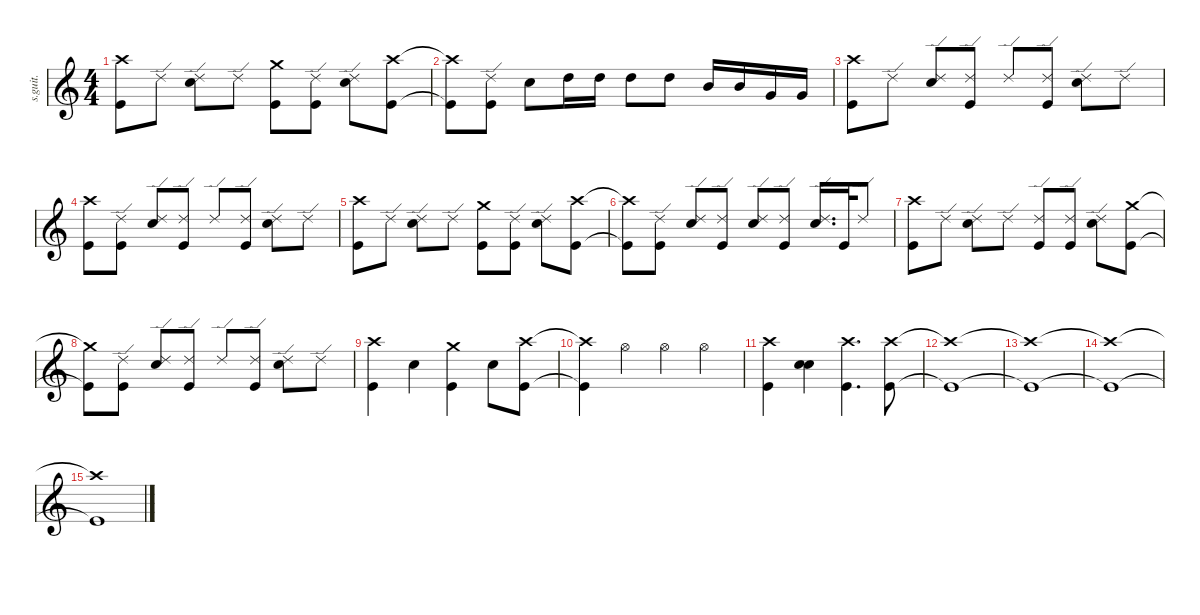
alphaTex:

\defaultSystemsLayout 4
\hideDynamics
\bracketExtendMode nobrackets
\track ("Tre Cool" "s.guit.") {instrument percussion}
\staff {score}
\articulation defaults
\ts (4 4)
\tempo (175 hide)
\clef g2
\ks c
("Crash high (hit)" "Kick (hit)").8{lyrics (0 "") lyrics (1 "") lyrics (2 "") lyrics (3 "") lyrics (4 "") dy fff} "Ride (edge) 2".8{lyrics (0 "") lyrics (1 "") lyrics (2 "") lyrics (3 "") lyrics (4 "")} ("Ride (edge) 2" "Snare (hit) 2").8{lyrics (0 "") lyrics (1 "") lyrics (2 "") lyrics (3 "") lyrics (4 "")} "Ride (edge) 2".8{lyrics (0 "") lyrics (1 "") lyrics (2 "") lyrics (3 "") lyrics (4 "")} ("Crash medium (hit)" "Kick (hit)").8{lyrics (0 "") lyrics (1 "") lyrics (2 "") lyrics (3 "") lyrics (4 "")} ("Ride (edge) 2" "Kick (hit)").8{lyrics (0 "") lyrics (1 "") lyrics (2 "") lyrics (3 "") lyrics (4 "")} ("Ride (edge) 2" "Snare (hit) 2").8{lyrics (0 "") lyrics (1 "") lyrics (2 "") lyrics (3 "") lyrics (4 "")} ("Crash high (hit)" "Kick (hit)").8{lyrics (0 "") lyrics (1 "") lyrics (2 "") lyrics (3 "") lyrics (4 "")} |
("Crash high (hit)"{t} "Kick (hit)"{t}).8{lyrics (0 "") lyrics (1 "") lyrics (2 "") lyrics (3 "") lyrics (4 "")} ("Ride (edge) 2" "Kick (hit)").8{lyrics (0 "") lyrics (1 "") lyrics (2 "") lyrics (3 "") lyrics (4 "")} "Snare (hit) 2".8{lyrics (0 "") lyrics (1 "") lyrics (2 "") lyrics (3 "") lyrics (4 "")} "High Tom (hit)".16{lyrics (0 "") lyrics (1 "") lyrics (2 "") lyrics (3 "") lyrics (4 "")} "High Tom (hit)".16{lyrics (0 "") lyrics (1 "") lyrics (2 "") lyrics (3 "") lyrics (4 "")} "High Tom (hit)".8{lyrics (0 "") lyrics (1 "") lyrics (2 "") lyrics (3 "") lyrics (4 "")} "High Tom (hit)".8{lyrics (0 "") lyrics (1 "") lyrics (2 "") lyrics (3 "") lyrics (4 "")} "Mid Tom (hit)".16{lyrics (0 "") lyrics (1 "") lyrics (2 "") lyrics (3 "") lyrics (4 "")} "Mid Tom (hit)".16{lyrics (0 "") lyrics (1 "") lyrics (2 "") lyrics (3 "") lyrics (4 "")} "Very Low Tom (hit)".16{lyrics (0 "") lyrics (1 "") lyrics (2 "") lyrics (3 "") lyrics (4 "") dy f} "Very Low Tom (hit)".16{lyrics (0 "") lyrics (1 "") lyrics (2 "") lyrics (3 "") lyrics (4 "")} |
("Crash high (hit)" "Kick (hit)").8{lyrics (0 "") lyrics (1 "") lyrics (2 "") lyrics (3 "") lyrics (4 "")} "Ride (edge) 2".8{lyrics (0 "") lyrics (1 "") lyrics (2 "") lyrics (3 "") lyrics (4 "")} ("Ride (edge) 2" "Snare (hit) 2").8{lyrics (0 "") lyrics (1 "") lyrics (2 "") lyrics (3 "") lyrics (4 "")} ("Ride (edge) 2" "Kick (hit)").8{lyrics (0 "") lyrics (1 "") lyrics (2 "") lyrics (3 "") lyrics (4 "")} "Ride (edge) 2".8{lyrics (0 "") lyrics (1 "") lyrics (2 "") lyrics (3 "") lyrics (4 "")} ("Ride (edge) 2" "Kick (hit)").8{lyrics (0 "") lyrics (1 "") lyrics (2 "") lyrics (3 "") lyrics (4 "")} ("Ride (edge) 2" "Snare (hit) 2").8{lyrics (0 "") lyrics (1 "") lyrics (2 "") lyrics (3 "") lyrics (4 "")} "Ride (edge) 2".8{lyrics (0 "") lyrics (1 "") lyrics (2 "") lyrics (3 "") lyrics (4 "")} |
("Crash high (hit)" "Kick (hit)").8{lyrics (0 "") lyrics (1 "") lyrics (2 "") lyrics (3 "") lyrics (4 "")} ("Ride (edge) 2" "Kick (hit)").8{lyrics (0 "") lyrics (1 "") lyrics (2 "") lyrics (3 "") lyrics (4 "")} ("Ride (edge) 2" "Snare (hit) 2").8{lyrics (0 "") lyrics (1 "") lyrics (2 "") lyrics (3 "") lyrics (4 "")} ("Ride (edge) 2" "Kick (hit)").8{lyrics (0 "") lyrics (1 "") lyrics (2 "") lyrics (3 "") lyrics (4 "")} "Ride (edge) 2".8{lyrics (0 "") lyrics (1 "") lyrics (2 "") lyrics (3 "") lyrics (4 "")} ("Ride (edge) 2" "Kick (hit)").8{lyrics (0 "") lyrics (1 "") lyrics (2 "") lyrics (3 "") lyrics (4 "")} ("Ride (edge) 2" "Snare (hit) 2").8{lyrics (0 "") lyrics (1 "") lyrics (2 "") lyrics (3 "") lyrics (4 "")} "Ride (edge) 2".8{lyrics (0 "") lyrics (1 "") lyrics (2 "") lyrics (3 "") lyrics (4 "")} |
("Crash high (hit)" "Kick (hit)").8{lyrics (0 "") lyrics (1 "") lyrics (2 "") lyrics (3 "") lyrics (4 "")} "Ride (edge) 2".8{lyrics (0 "") lyrics (1 "") lyrics (2 "") lyrics (3 "") lyrics (4 "")} ("Ride (edge) 2" "Snare (hit) 2").8{lyrics (0 "") lyrics (1 "") lyrics (2 "") lyrics (3 "") lyrics (4 "")} "Ride (edge) 2".8{lyrics (0 "") lyrics (1 "") lyrics (2 "") lyrics (3 "") lyrics (4 "")} ("Crash medium (hit)" "Kick (hit)").8{lyrics (0 "") lyrics (1 "") lyrics (2 "") lyrics (3 "") lyrics (4 "")} ("Ride (edge) 2" "Kick (hit)").8{lyrics (0 "") lyrics (1 "") lyrics (2 "") lyrics (3 "") lyrics (4 "")} ("Ride (edge) 2" "Snare (hit) 2").8{lyrics (0 "") lyrics (1 "") lyrics (2 "") lyrics (3 "") lyrics (4 "")} ("Crash high (hit)" "Kick (hit)").8{lyrics (0 "") lyrics (1 "") lyrics (2 "") lyrics (3 "") lyrics (4 "")} |
("Crash high (hit)"{t} "Kick (hit)"{t}).8{lyrics (0 "") lyrics (1 "") lyrics (2 "") lyrics (3 "") lyrics (4 "")} ("Ride (edge) 2" "Kick (hit)").8{lyrics (0 "") lyrics (1 "") lyrics (2 "") lyrics (3 "") lyrics (4 "")} ("Ride (edge) 2" "Snare (hit) 2").8{lyrics (0 "") lyrics (1 "") lyrics (2 "") lyrics (3 "") lyrics (4 "")} ("Ride (edge) 2" "Kick (hit)").8{lyrics (0 "") lyrics (1 "") lyrics (2 "") lyrics (3 "") lyrics (4 "")} ("Ride (edge) 2" "Snare (hit) 2").8{lyrics (0 "") lyrics (1 "") lyrics (2 "") lyrics (3 "") lyrics (4 "")} ("Ride (edge) 2" "Kick (hit)").8{lyrics (0 "") lyrics (1 "") lyrics (2 "") lyrics (3 "") lyrics (4 "")} ("Ride (edge) 2" "Snare (hit) 2").16{d lyrics (0 "") lyrics (1 "") lyrics (2 "") lyrics (3 "") lyrics (4 "")} "Kick (hit)".32{lyrics (0 "") lyrics (1 "") lyrics (2 "") lyrics (3 "") lyrics (4 "") dy ff} "Ride (edge) 2".8{lyrics (0 "") lyrics (1 "") lyrics (2 "") lyrics (3 "") lyrics (4 "")} |
("Crash high (hit)" "Kick (hit)").8{lyrics (0 "") lyrics (1 "") lyrics (2 "") lyrics (3 "") lyrics (4 "")} "Ride (edge) 2".8{lyrics (0 "") lyrics (1 "") lyrics (2 "") lyrics (3 "") lyrics (4 "") dy f} ("Ride (edge) 2" "Snare (hit) 2").8{lyrics (0 "") lyrics (1 "") lyrics (2 "") lyrics (3 "") lyrics (4 "")} "Ride (edge) 2".8{lyrics (0 "") lyrics (1 "") lyrics (2 "") lyrics (3 "") lyrics (4 "")} ("Ride (edge) 2" "Kick (hit)").8{lyrics (0 "") lyrics (1 "") lyrics (2 "") lyrics (3 "") lyrics (4 "")} ("Ride (edge) 2" "Kick (hit)").8{lyrics (0 "") lyrics (1 "") lyrics (2 "") lyrics (3 "") lyrics (4 "")} ("Ride (edge) 2" "Snare (hit) 2").8{lyrics (0 "") lyrics (1 "") lyrics (2 "") lyrics (3 "") lyrics (4 "")} ("Crash medium (hit)" "Kick (hit)").8{lyrics (0 "") lyrics (1 "") lyrics (2 "") lyrics (3 "") lyrics (4 "")} |
("Crash medium (hit)"{t} "Kick (hit)"{t}).8{lyrics (0 "") lyrics (1 "") lyrics (2 "") lyrics (3 "") lyrics (4 "")} ("Ride (edge) 2" "Kick (hit)").8{lyrics (0 "") lyrics (1 "") lyrics (2 "") lyrics (3 "") lyrics (4 "")} ("Ride (edge) 2" "Snare (hit) 2").8{lyrics (0 "") lyrics (1 "") lyrics (2 "") lyrics (3 "") lyrics (4 "")} ("Ride (edge) 2" "Kick (hit)").8{lyrics (0 "") lyrics (1 "") lyrics (2 "") lyrics (3 "") lyrics (4 "")} "Ride (edge) 2".8{lyrics (0 "") lyrics (1 "") lyrics (2 "") lyrics (3 "") lyrics (4 "")} ("Ride (edge) 2" "Kick (hit)").8{lyrics (0 "") lyrics (1 "") lyrics (2 "") lyrics (3 "") lyrics (4 "")} ("Ride (edge) 2" "Snare (hit) 2").8{lyrics (0 "") lyrics (1 "") lyrics (2 "") lyrics (3 "") lyrics (4 "")} "Ride (edge) 2".8{lyrics (0 "") lyrics (1 "") lyrics (2 "") lyrics (3 "") lyrics (4 "")} |
("Crash high (hit)" "Kick (hit)").4{lyrics (0 "") lyrics (1 "") lyrics (2 "") lyrics (3 "") lyrics (4 "")} "Snare (hit) 2".4{lyrics (0 "") lyrics (1 "") lyrics (2 "") lyrics (3 "") lyrics (4 "")} ("Crash medium (hit)" "Kick (hit)").4{lyrics (0 "") lyrics (1 "") lyrics (2 "") lyrics (3 "") lyrics (4 "")} "Snare (hit) 2".8{lyrics (0 "") lyrics (1 "") lyrics (2 "") lyrics (3 "") lyrics (4 "")} ("Crash high (hit)" "Kick (hit)").8{lyrics (0 "") lyrics (1 "") lyrics (2 "") lyrics (3 "") lyrics (4 "")} |
("Crash high (hit)"{t} "Kick (hit)"{t}).4{lyrics (0 "") lyrics (1 "") lyrics (2 "") lyrics (3 "") lyrics (4 "")} "Hi-Hat (open)".4{lyrics (0 "") lyrics (1 "") lyrics (2 "") lyrics (3 "") lyrics (4 "")} "Hi-Hat (open)".4{lyrics (0 "") lyrics (1 "") lyrics (2 "") lyrics (3 "") lyrics (4 "")} "Hi-Hat (open)".4{lyrics (0 "") lyrics (1 "") lyrics (2 "") lyrics (3 "") lyrics (4 "")} |
("Crash high (hit)" "Kick (hit)").4{lyrics (0 "") lyrics (1 "") lyrics (2 "") lyrics (3 "") lyrics (4 "")} ("Snare (hit) 2" "Snare (hit) 2").4{bd 30 lyrics (0 "") lyrics (1 "") lyrics (2 "") lyrics (3 "") lyrics (4 "")} ("Crash high (hit)" "Kick (hit)").4{d lyrics (0 "") lyrics (1 "") lyrics (2 "") lyrics (3 "") lyrics (4 "")} ("Crash high (hit)" "Kick (hit)").8{lyrics (0 "") lyrics (1 "") lyrics (2 "") lyrics (3 "") lyrics (4 "")} |
("Crash high (hit)"{t} "Kick (hit)"{t}).1{lyrics (0 "") lyrics (1 "") lyrics (2 "") lyrics (3 "") lyrics (4 "")} |
("Crash high (hit)"{t} "Kick (hit)"{t}).1{lyrics (0 "") lyrics (1 "") lyrics (2 "") lyrics (3 "") lyrics (4 "")} |
("Crash high (hit)"{t} "Kick (hit)"{t}).1{lyrics (0 "") lyrics (1 "") lyrics (2 "") lyrics (3 "") lyrics (4 "")} |
("Crash high (hit)"{t} "Kick (hit)"{t}).1{lyrics (0 "") lyrics (1 "") lyrics (2 "") lyrics (3 "") lyrics (4 "")}
